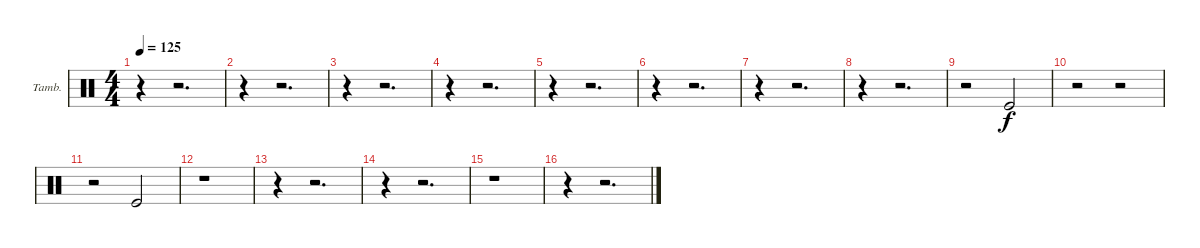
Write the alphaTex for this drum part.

\bracketExtendMode groupsimilarinstruments
\firstSystemTrackNameOrientation horizontal
\otherSystemsTrackNameOrientation horizontal
\track ("Tambourine" "Tamb.") {instrument percussion}
\staff {score}
\articulation defaults
\ts (4 4)
\tempo 125
\clef neutral
\ks c
r.4{dy f} r.2{d} |
r.4 r.2{d} |
r.4 r.2{d} |
r.4 r.2{d} |
r.4 r.2{d} |
r.4 r.2{d} |
r.4 r.2{d} |
r.4 r.2{d} |
r.2 "Kick (hit)".2 |
r.2 r.2 |
r.2 "Kick (hit)".2 |
r.1 |
r.4 r.2{d} |
r.4 r.2{d} |
r.1 |
r.4 r.2{d}
